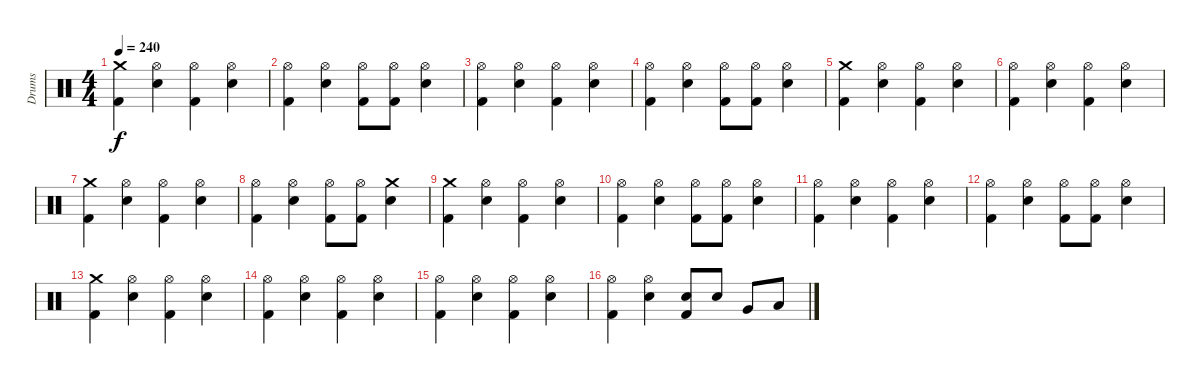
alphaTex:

\track ("Drums" "Drums") {instrument percussion}
\staff {score}
\articulation defaults
\ts (4 4)
\tempo 240
\clef neutral
\ks c
("Crash medium (hit)" "Kick (hit) 2").4{dy f} ("Hi-Hat (open)" "Snare (hit) 2").4 ("Hi-Hat (open)" "Kick (hit) 2").4 ("Hi-Hat (open)" "Snare (hit) 2").4 |
("Hi-Hat (open)" "Kick (hit) 2").4 ("Hi-Hat (open)" "Snare (hit) 2").4 ("Hi-Hat (open)" "Kick (hit) 2").8 ("Hi-Hat (open)" "Kick (hit) 2").8 ("Hi-Hat (open)" "Snare (hit) 2").4 |
("Hi-Hat (open)" "Kick (hit) 2").4 ("Hi-Hat (open)" "Snare (hit) 2").4 ("Hi-Hat (open)" "Kick (hit) 2").4 ("Hi-Hat (open)" "Snare (hit) 2").4 |
("Hi-Hat (open)" "Kick (hit) 2").4 ("Hi-Hat (open)" "Snare (hit) 2").4 ("Hi-Hat (open)" "Kick (hit) 2").8 ("Hi-Hat (open)" "Kick (hit) 2").8 ("Hi-Hat (open)" "Snare (hit) 2").4 |
("Crash medium (hit)" "Kick (hit) 2").4 ("Hi-Hat (open)" "Snare (hit) 2").4 ("Hi-Hat (open)" "Kick (hit) 2").4 ("Hi-Hat (open)" "Snare (hit) 2").4 |
("Hi-Hat (open)" "Kick (hit) 2").4 ("Hi-Hat (open)" "Snare (hit) 2").4 ("Hi-Hat (open)" "Kick (hit) 2").4 ("Hi-Hat (open)" "Snare (hit) 2").4 |
("Crash medium (hit)" "Kick (hit) 2").4 ("Hi-Hat (open)" "Snare (hit) 2").4 ("Hi-Hat (open)" "Kick (hit) 2").4 ("Hi-Hat (open)" "Snare (hit) 2").4 |
("Hi-Hat (open)" "Kick (hit) 2").4 ("Hi-Hat (open)" "Snare (hit) 2").4 ("Hi-Hat (open)" "Kick (hit) 2").8 ("Hi-Hat (open)" "Kick (hit) 2").8 ("Crash medium (hit)" "Snare (hit) 2").4 |
("Crash medium (hit)" "Kick (hit) 2").4 ("Hi-Hat (open)" "Snare (hit) 2").4 ("Hi-Hat (open)" "Kick (hit) 2").4 ("Hi-Hat (open)" "Snare (hit) 2").4 |
("Hi-Hat (open)" "Kick (hit) 2").4 ("Hi-Hat (open)" "Snare (hit) 2").4 ("Hi-Hat (open)" "Kick (hit) 2").8 ("Hi-Hat (open)" "Kick (hit) 2").8 ("Hi-Hat (open)" "Snare (hit) 2").4 |
("Hi-Hat (open)" "Kick (hit) 2").4 ("Hi-Hat (open)" "Snare (hit) 2").4 ("Hi-Hat (open)" "Kick (hit) 2").4 ("Hi-Hat (open)" "Snare (hit) 2").4 |
("Hi-Hat (open)" "Kick (hit) 2").4 ("Hi-Hat (open)" "Snare (hit) 2").4 ("Hi-Hat (open)" "Kick (hit) 2").8 ("Hi-Hat (open)" "Kick (hit) 2").8 ("Hi-Hat (open)" "Snare (hit) 2").4 |
("Crash medium (hit)" "Kick (hit) 2").4 ("Hi-Hat (open)" "Snare (hit) 2").4 ("Hi-Hat (open)" "Kick (hit) 2").4 ("Hi-Hat (open)" "Snare (hit) 2").4 |
("Hi-Hat (open)" "Kick (hit) 2").4 ("Hi-Hat (open)" "Snare (hit) 2").4 ("Hi-Hat (open)" "Kick (hit) 2").4 ("Hi-Hat (open)" "Snare (hit) 2").4 |
("Hi-Hat (open)" "Kick (hit) 2").4 ("Hi-Hat (open)" "Snare (hit) 2").4 ("Hi-Hat (open)" "Kick (hit) 2").4 ("Hi-Hat (open)" "Snare (hit) 2").4 |
("Hi-Hat (open)" "Kick (hit) 2").4 ("Hi-Hat (open)" "Snare (hit) 2").4 ("Snare (hit) 2" "Kick (hit) 2").8 "Snare (hit) 2".8 "Very Low Tom (hit)".8 "Low Tom (hit)".8
